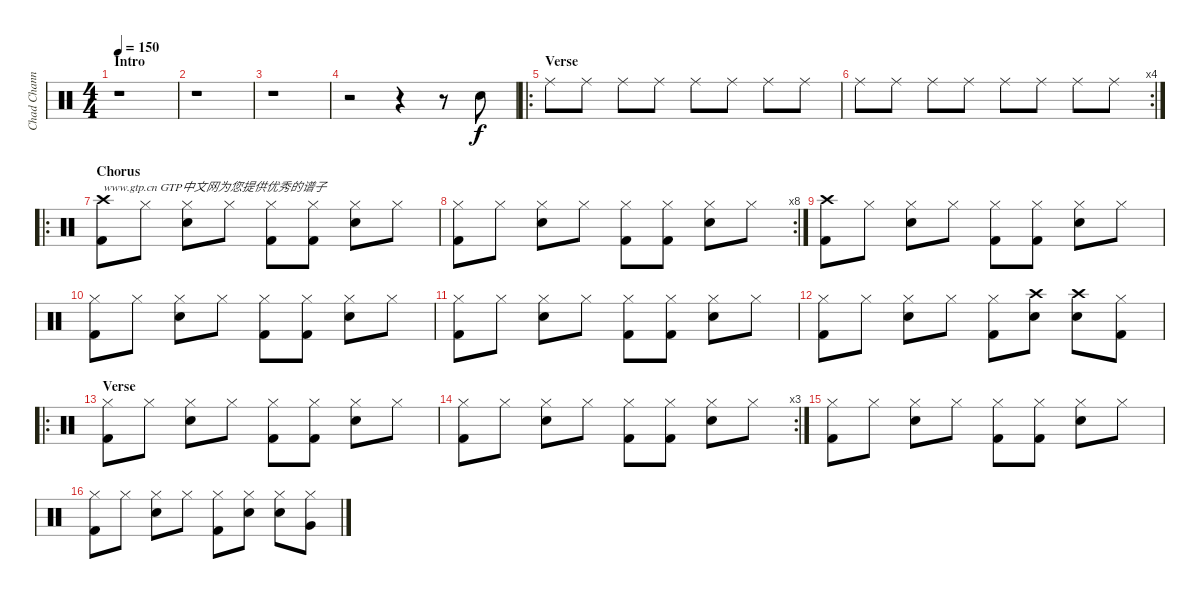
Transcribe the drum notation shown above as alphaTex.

\track ("Chad Channing" "Chad Chann") {instrument percussion}
\staff {score}
\articulation defaults
\ts (4 4)
\section ("" "Intro")
\tempo 150
\clef neutral
\ks c
r.1{dy f} |
r.1 |
r.1 |
r.2 r.4 r.8 "Electric Snare (hit)".8 |
\ro
\section ("" "Verse")
"Ride (middle)".8 "Ride (middle)".8 "Ride (middle)".8 "Ride (middle)".8 "Ride (middle)".8 "Ride (middle)".8 "Ride (middle)".8 "Ride (middle)".8 |
\rc 4 "Ride (middle)".8 "Ride (middle)".8 "Ride (middle)".8 "Ride (middle)".8 "Ride (middle)".8 "Ride (middle)".8 "Ride (middle)".8 "Ride (middle)".8
|
\ro
\section ("" "Chorus")
("Crash high (hit)" "Kick (hit) 2").8{txt "www.gtp.cn GTP中文网为您提供优秀的谱子"} "Hi-Hat (closed)".8 ("Hi-Hat (closed)" "Electric Snare (hit)").8 "Hi-Hat (closed)".8 ("Hi-Hat (closed)" "Kick (hit) 2").8 ("Hi-Hat (closed)" "Kick (hit) 2").8 ("Hi-Hat (closed)" "Electric Snare (hit)").8 "Hi-Hat (closed)".8 |
\rc 8
("Hi-Hat (closed)" "Kick (hit) 2").8 "Hi-Hat (closed)".8 ("Hi-Hat (closed)" "Electric Snare (hit)").8 "Hi-Hat (closed)".8 ("Hi-Hat (closed)" "Kick (hit) 2").8 ("Hi-Hat (closed)" "Kick (hit) 2").8 ("Hi-Hat (closed)" "Electric Snare (hit)").8 "Hi-Hat (closed)".8 |
("Crash high (hit)" "Kick (hit) 2").8 "Hi-Hat (closed)".8 ("Hi-Hat (closed)" "Electric Snare (hit)").8 "Hi-Hat (closed)".8 ("Hi-Hat (closed)" "Kick (hit) 2").8 ("Hi-Hat (closed)" "Kick (hit) 2").8 ("Hi-Hat (closed)" "Electric Snare (hit)").8 "Hi-Hat (closed)".8 |
("Hi-Hat (closed)" "Kick (hit) 2").8 "Hi-Hat (closed)".8 ("Hi-Hat (closed)" "Electric Snare (hit)").8 "Hi-Hat (closed)".8 ("Hi-Hat (closed)" "Kick (hit) 2").8 ("Hi-Hat (closed)" "Kick (hit) 2").8 ("Hi-Hat (closed)" "Electric Snare (hit)").8 "Hi-Hat (closed)".8 |
("Hi-Hat (closed)" "Kick (hit) 2").8 "Hi-Hat (closed)".8 ("Hi-Hat (closed)" "Electric Snare (hit)").8 "Hi-Hat (closed)".8 ("Hi-Hat (closed)" "Kick (hit) 2").8 ("Hi-Hat (closed)" "Kick (hit) 2").8 ("Hi-Hat (closed)" "Electric Snare (hit)").8 "Hi-Hat (closed)".8 |
("Hi-Hat (closed)" "Kick (hit) 2").8 "Hi-Hat (closed)".8 ("Hi-Hat (closed)" "Electric Snare (hit)").8 "Hi-Hat (closed)".8 ("Hi-Hat (closed)" "Kick (hit) 2").8 ("Crash high (hit)" "Electric Snare (hit)").8 ("Crash high (hit)" "Electric Snare (hit)").8 ("Hi-Hat (closed)" "Kick (hit) 2").8 |
\ro
\section ("" "Verse")
("Hi-Hat (closed)" "Kick (hit) 2").8 "Hi-Hat (closed)".8 ("Hi-Hat (closed)" "Electric Snare (hit)").8 "Hi-Hat (closed)".8 ("Hi-Hat (closed)" "Kick (hit) 2").8 ("Hi-Hat (closed)" "Kick (hit) 2").8 ("Hi-Hat (closed)" "Electric Snare (hit)").8 "Hi-Hat (closed)".8 |
\rc 3
("Hi-Hat (closed)" "Kick (hit) 2").8 "Hi-Hat (closed)".8 ("Hi-Hat (closed)" "Electric Snare (hit)").8 "Hi-Hat (closed)".8 ("Hi-Hat (closed)" "Kick (hit) 2").8 ("Hi-Hat (closed)" "Kick (hit) 2").8 ("Hi-Hat (closed)" "Electric Snare (hit)").8 "Hi-Hat (closed)".8 |
("Hi-Hat (closed)" "Kick (hit) 2").8 "Hi-Hat (closed)".8 ("Hi-Hat (closed)" "Electric Snare (hit)").8 "Hi-Hat (closed)".8 ("Hi-Hat (closed)" "Kick (hit) 2").8 ("Hi-Hat (closed)" "Kick (hit) 2").8 ("Hi-Hat (closed)" "Electric Snare (hit)").8 "Hi-Hat (closed)".8 |
("Hi-Hat (closed)" "Kick (hit) 2").8 "Hi-Hat (closed)".8 ("Hi-Hat (closed)" "Electric Snare (hit)").8 "Hi-Hat (closed)".8 ("Hi-Hat (closed)" "Kick (hit) 2").8 ("Hi-Hat (closed)" "Electric Snare (hit)").8 ("Hi-Hat (closed)" "Electric Snare (hit)").8 ("Hi-Hat (closed)" "Very Low Tom (hit)").8
